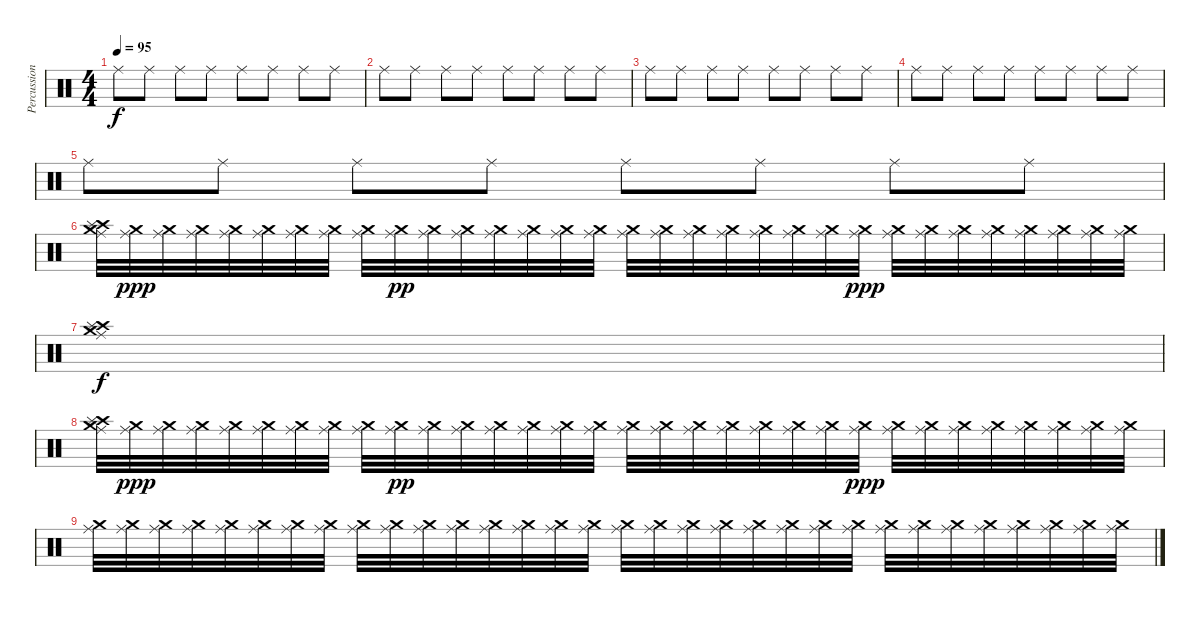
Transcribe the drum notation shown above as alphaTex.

\track ("Percussion" "Percussion") {instrument percussion}
\staff {score}
\articulation defaults
\ts (4 4)
\tempo 95
\clef neutral
\ks c "Ride (middle)".8{dy f} "Ride (middle)".8 "Ride (middle)".8 "Ride (middle)".8 "Ride (middle)".8 "Ride (middle)".8 "Ride (middle)".8 "Ride (middle)".8
|
"Ride (middle)".8 "Ride (middle)".8 "Ride (middle)".8 "Ride (middle)".8 "Ride (middle)".8 "Ride (middle)".8 "Ride (middle)".8 "Ride (middle)".8 |
"Ride (middle)".8 "Ride (middle)".8 "Ride (middle)".8 "Ride (middle)".8 "Ride (middle)".8 "Ride (middle)".8 "Ride (middle)".8 "Ride (middle)".8 |
"Ride (middle)".8 "Ride (middle)".8 "Ride (middle)".8 "Ride (middle)".8 "Ride (middle)".8 "Ride (middle)".8 "Ride (middle)".8 "Ride (middle)".8 |
"Ride (middle)".8 "Ride (middle)".8 "Ride (middle)".8 "Ride (middle)".8 "Ride (middle)".8 "Ride (middle)".8 "Ride (middle)".8 "Ride (middle)".8 |
("Crash high (hit)" "Crash medium (hit)" "Splash (hit)" "Ride (middle)").32 ("Ride (middle)" "Crash medium (hit)").32{dy ppp} ("Ride (middle)" "Crash medium (hit)").32 ("Ride (middle)" "Crash medium (hit)").32 ("Ride (middle)" "Crash medium (hit)").32 ("Ride (middle)" "Crash medium (hit)").32 ("Ride (middle)" "Crash medium (hit)").32 ("Ride (middle)" "Crash medium (hit)").32 ("Ride (middle)" "Crash medium (hit)").32 ("Ride (middle)" "Crash medium (hit)").32{dy pp} ("Ride (middle)" "Crash medium (hit)").32 ("Ride (middle)" "Crash medium (hit)").32 ("Ride (middle)" "Crash medium (hit)").32 ("Ride (middle)" "Crash medium (hit)").32 ("Ride (middle)" "Crash medium (hit)").32 ("Ride (middle)" "Crash medium (hit)").32 ("Ride (middle)" "Crash medium (hit)").32 ("Ride (middle)" "Crash medium (hit)").32 ("Ride (middle)" "Crash medium (hit)").32 ("Ride (middle)" "Crash medium (hit)").32 ("Ride (middle)" "Crash medium (hit)").32 ("Ride (middle)" "Crash medium (hit)").32 ("Ride (middle)" "Crash medium (hit)").32 ("Ride (middle)" "Crash medium (hit)").32{dy ppp} ("Ride (middle)" "Crash medium (hit)").32 ("Ride (middle)" "Crash medium (hit)").32 ("Ride (middle)" "Crash medium (hit)").32 ("Ride (middle)" "Crash medium (hit)").32 ("Ride (middle)" "Crash medium (hit)").32 ("Ride (middle)" "Crash medium (hit)").32 ("Ride (middle)" "Crash medium (hit)").32 ("Ride (middle)" "Crash medium (hit)").32 |
("Crash high (hit)" "Crash medium (hit)" "Splash (hit)" "Ride (middle)").1{dy f} |
("Crash high (hit)" "Crash medium (hit)" "Splash (hit)" "Ride (middle)").32 ("Ride (middle)" "Crash medium (hit)").32{dy ppp} ("Ride (middle)" "Crash medium (hit)").32 ("Ride (middle)" "Crash medium (hit)").32 ("Ride (middle)" "Crash medium (hit)").32 ("Ride (middle)" "Crash medium (hit)").32 ("Ride (middle)" "Crash medium (hit)").32 ("Ride (middle)" "Crash medium (hit)").32 ("Ride (middle)" "Crash medium (hit)").32 ("Ride (middle)" "Crash medium (hit)").32{dy pp} ("Ride (middle)" "Crash medium (hit)").32 ("Ride (middle)" "Crash medium (hit)").32 ("Ride (middle)" "Crash medium (hit)").32 ("Ride (middle)" "Crash medium (hit)").32 ("Ride (middle)" "Crash medium (hit)").32 ("Ride (middle)" "Crash medium (hit)").32 ("Ride (middle)" "Crash medium (hit)").32 ("Ride (middle)" "Crash medium (hit)").32 ("Ride (middle)" "Crash medium (hit)").32 ("Ride (middle)" "Crash medium (hit)").32 ("Ride (middle)" "Crash medium (hit)").32 ("Ride (middle)" "Crash medium (hit)").32 ("Ride (middle)" "Crash medium (hit)").32 ("Ride (middle)" "Crash medium (hit)").32{dy ppp} ("Ride (middle)" "Crash medium (hit)").32 ("Ride (middle)" "Crash medium (hit)").32 ("Ride (middle)" "Crash medium (hit)").32 ("Ride (middle)" "Crash medium (hit)").32 ("Ride (middle)" "Crash medium (hit)").32 ("Ride (middle)" "Crash medium (hit)").32 ("Ride (middle)" "Crash medium (hit)").32 ("Ride (middle)" "Crash medium (hit)").32 |
("Ride (middle)" "Crash medium (hit)").32 ("Ride (middle)" "Crash medium (hit)").32 ("Ride (middle)" "Crash medium (hit)").32 ("Ride (middle)" "Crash medium (hit)").32 ("Ride (middle)" "Crash medium (hit)").32 ("Ride (middle)" "Crash medium (hit)").32 ("Ride (middle)" "Crash medium (hit)").32 ("Ride (middle)" "Crash medium (hit)").32 ("Ride (middle)" "Crash medium (hit)").32 ("Ride (middle)" "Crash medium (hit)").32 ("Ride (middle)" "Crash medium (hit)").32 ("Ride (middle)" "Crash medium (hit)").32 ("Ride (middle)" "Crash medium (hit)").32 ("Ride (middle)" "Crash medium (hit)").32 ("Ride (middle)" "Crash medium (hit)").32 ("Ride (middle)" "Crash medium (hit)").32 ("Ride (middle)" "Crash medium (hit)").32 ("Ride (middle)" "Crash medium (hit)").32 ("Ride (middle)" "Crash medium (hit)").32 ("Ride (middle)" "Crash medium (hit)").32 ("Ride (middle)" "Crash medium (hit)").32 ("Ride (middle)" "Crash medium (hit)").32 ("Ride (middle)" "Crash medium (hit)").32 ("Ride (middle)" "Crash medium (hit)").32 ("Ride (middle)" "Crash medium (hit)").32 ("Ride (middle)" "Crash medium (hit)").32 ("Ride (middle)" "Crash medium (hit)").32 ("Ride (middle)" "Crash medium (hit)").32 ("Ride (middle)" "Crash medium (hit)").32 ("Ride (middle)" "Crash medium (hit)").32 ("Ride (middle)" "Crash medium (hit)").32 ("Ride (middle)" "Crash medium (hit)").32
